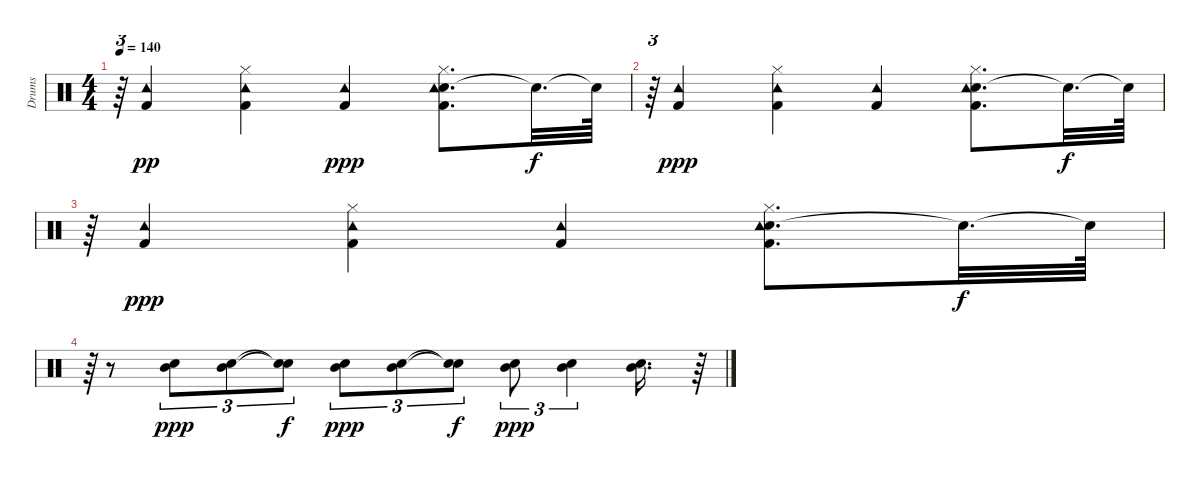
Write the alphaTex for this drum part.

\track ("Drums" "Drums") {instrument percussion}
\staff {score}
\articulation defaults
\ts (4 4)
\tempo 140
\clef neutral
\ks c
r.64{tu (3 2) dy pp} ("Tambourine (hit)" "Kick (hit) 2").4 ("Hi-Hat (closed)" "Tambourine (hit)" "Kick (hit) 2").4 ("Tambourine (hit)" "Kick (hit) 2").4{dy ppp} ("Electric Snare (hit)" "Hi-Hat (closed)" "Tambourine (hit)" "Kick (hit) 2").8{d} "Snare (hit)"{t}.32{d dy f} "Snare (hit)"{t}.64 |
r.64{tu (3 2)} ("Tambourine (hit)" "Kick (hit) 2").4{dy ppp} ("Hi-Hat (closed)" "Tambourine (hit)" "Kick (hit) 2").4 ("Tambourine (hit)" "Kick (hit) 2").4 ("Electric Snare (hit)" "Hi-Hat (closed)" "Tambourine (hit)" "Kick (hit) 2").8{d} "Snare (hit)"{t}.32{d dy f} "Snare (hit)"{t}.64 |
r.64{tu (3 2)} ("Tambourine (hit)" "Kick (hit) 2").4{dy ppp} ("Hi-Hat (closed)" "Tambourine (hit)" "Kick (hit) 2").4 ("Tambourine (hit)" "Kick (hit) 2").4 ("Electric Snare (hit)" "Hi-Hat (closed)" "Tambourine (hit)" "Kick (hit) 2").8{d} "Snare (hit)"{t}.32{d dy f} "Snare (hit)"{t}.64 |
r.64{tu (3 2)} r.8 ("Mid Tom (hit)" "Electric Snare (hit)").8{tu (3 2) dy ppp} ("Mid Tom (hit)" "Electric Snare (hit)").8{tu (3 2)} ("Snare (hit)"{t} "Snare (hit)"{t}).8{tu (3 2) dy f} ("Mid Tom (hit)" "Electric Snare (hit)").8{tu (3 2) dy ppp} ("Mid Tom (hit)" "Electric Snare (hit)").8{tu (3 2)} ("Snare (hit)"{t} "Snare (hit)"{t}).8{tu (3 2) dy f} ("Mid Tom (hit)" "Electric Snare (hit)").8{tu (3 2) dy ppp} ("Mid Tom (hit)" "Electric Snare (hit)").4{tu (3 2)} ("Mid Tom (hit)" "Electric Snare (hit)").16{d} r.64
